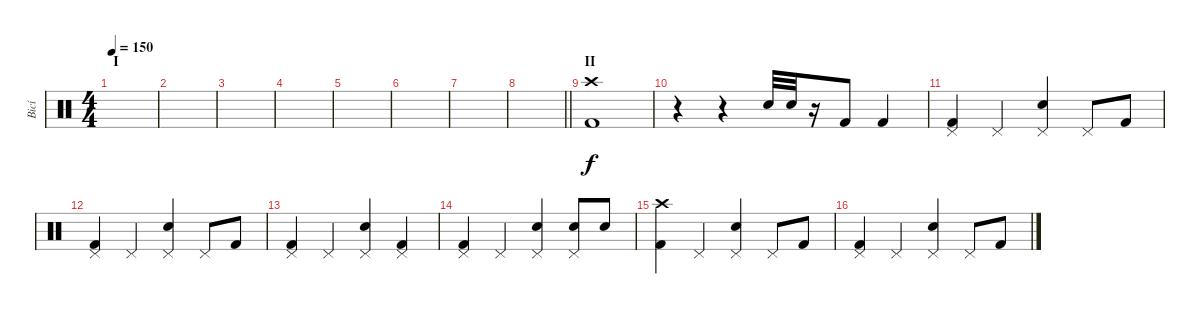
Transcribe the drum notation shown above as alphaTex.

\track ("Bicí" "Bicí") {instrument percussion}
\staff {score}
\articulation defaults
\ts (4 4)
\section ("" "I")
\tempo 150
\clef neutral
\ks c
|
|
|
|
|
|
|
\barLineRight lightlight
|
\section ("" "II")
("Crash high (hit)" "Kick (hit) 2").1 |
r.4 r.4 "Electric Snare (hit)".32 "Electric Snare (hit)".32 r.16 "Kick (hit) 2".8 "Kick (hit) 2".4 |
("Pedal Hi-Hat (hit)" "Kick (hit) 2").4 "Pedal Hi-Hat (hit)".4 ("Pedal Hi-Hat (hit)" "Electric Snare (hit)").4 "Pedal Hi-Hat (hit)".8 "Kick (hit) 2".8 |
("Pedal Hi-Hat (hit)" "Kick (hit) 2").4 "Pedal Hi-Hat (hit)".4 ("Pedal Hi-Hat (hit)" "Electric Snare (hit)").4 "Pedal Hi-Hat (hit)".8 "Kick (hit) 2".8 |
("Pedal Hi-Hat (hit)" "Kick (hit) 2").4 "Pedal Hi-Hat (hit)".4 ("Pedal Hi-Hat (hit)" "Electric Snare (hit)").4 ("Pedal Hi-Hat (hit)" "Kick (hit) 2").4 |
("Pedal Hi-Hat (hit)" "Kick (hit) 2").4 "Pedal Hi-Hat (hit)".4 ("Pedal Hi-Hat (hit)" "Electric Snare (hit)").4 ("Pedal Hi-Hat (hit)" "Electric Snare (hit)").8 "Electric Snare (hit)".8 |
("Crash high (hit)" "Kick (hit) 2").4 "Pedal Hi-Hat (hit)".4 ("Pedal Hi-Hat (hit)" "Electric Snare (hit)").4 "Pedal Hi-Hat (hit)".8 "Kick (hit) 2".8 |
("Pedal Hi-Hat (hit)" "Kick (hit) 2").4 "Pedal Hi-Hat (hit)".4 ("Pedal Hi-Hat (hit)" "Electric Snare (hit)").4 "Pedal Hi-Hat (hit)".8 "Kick (hit) 2".8
